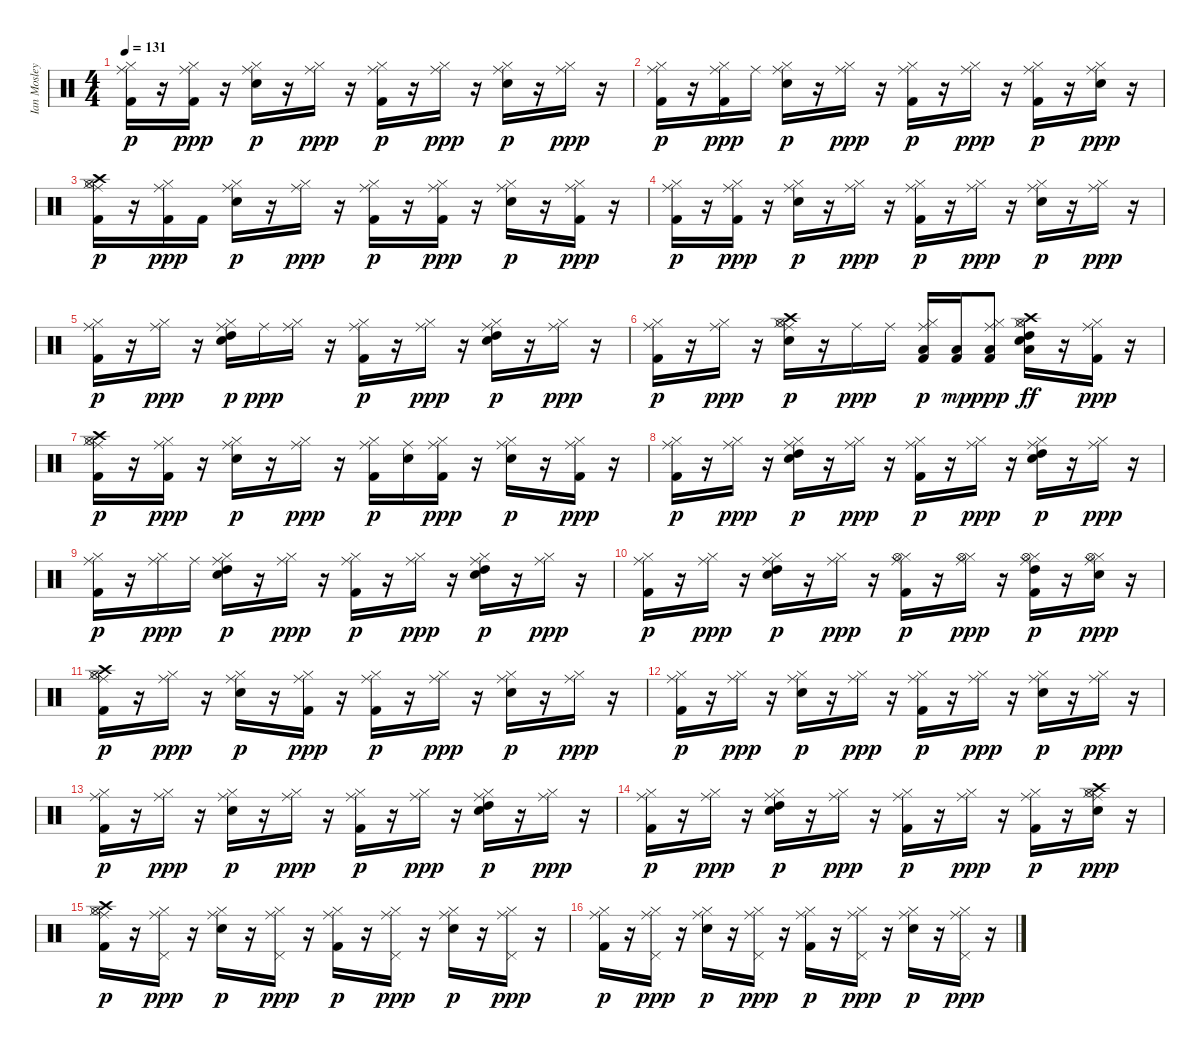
\track ("Ian Mosley" "Ian Mosley") {instrument percussion}
\staff {score}
\articulation defaults
\ts (4 4)
\tempo 131
\clef neutral
\ks c
("Kick (hit) 2" "Hi-Hat (closed)" "Ride (middle)").16{dy p} r.16 ("Hi-Hat (closed)" "Kick (hit) 2" "Ride (middle)").16{dy ppp} r.16 ("Snare (hit) 2" "Hi-Hat (closed)" "Ride (middle)").16{dy p} r.16 ("Hi-Hat (closed)" "Ride (middle)").16{dy ppp} r.16 ("Kick (hit) 2" "Hi-Hat (closed)" "Ride (middle)").16{dy p} r.16 ("Hi-Hat (closed)" "Ride (middle)").16{dy ppp} r.16 ("Hi-Hat (closed)" "Snare (hit) 2" "Ride (middle)").16{dy p} r.16 ("Hi-Hat (closed)" "Ride (middle)").16{dy ppp} r.16 |
("Kick (hit) 2" "Hi-Hat (closed)" "Ride (middle)").16{dy p} r.16 ("Kick (hit) 2" "Hi-Hat (closed)" "Ride (middle)").16{dy ppp} "Ride (middle)".16 ("Snare (hit) 2" "Hi-Hat (closed)" "Ride (middle)").16{dy p} r.16 ("Hi-Hat (closed)" "Ride (middle)").16{dy ppp} r.16 ("Hi-Hat (closed)" "Kick (hit) 2" "Ride (middle)").16{dy p} r.16 ("Hi-Hat (closed)" "Ride (middle)").16{dy ppp} r.16 ("Kick (hit) 2" "Hi-Hat (closed)" "Ride (middle)").16{dy p} r.16 ("Snare (hit) 2" "Hi-Hat (closed)" "Ride (middle)").16{dy ppp} r.16 |
("Kick (hit) 2" "Hi-Hat (closed)" "Crash high (hit)" "Hi-Hat (open)" "Ride (middle)").16{dy p} r.16 ("Hi-Hat (closed)" "Kick (hit) 2" "Ride (middle)").16{dy ppp} "Kick (hit) 2".16 ("Snare (hit) 2" "Hi-Hat (closed)" "Ride (middle)").16{dy p} r.16 ("Hi-Hat (closed)" "Ride (middle)").16{dy ppp} r.16 ("Kick (hit) 2" "Hi-Hat (closed)" "Ride (middle)").16{dy p} r.16 ("Hi-Hat (closed)" "Kick (hit) 2" "Ride (middle)").16{dy ppp} r.16 ("Snare (hit) 2" "Hi-Hat (closed)" "Ride (middle)").16{dy p} r.16 ("Hi-Hat (closed)" "Kick (hit) 2" "Ride (middle)").16{dy ppp} r.16 |
("Kick (hit) 2" "Hi-Hat (closed)" "Ride (middle)").16{dy p} r.16 ("Hi-Hat (closed)" "Kick (hit) 2" "Ride (middle)").16{dy ppp} r.16 ("Snare (hit) 2" "Hi-Hat (closed)" "Ride (middle)").16{dy p} r.16 ("Hi-Hat (closed)" "Ride (middle)").16{dy ppp} r.16 ("Kick (hit) 2" "Hi-Hat (closed)" "Ride (middle)").16{dy p} r.16 ("Hi-Hat (closed)" "Ride (middle)").16{dy ppp} r.16 ("Hi-Hat (closed)" "Snare (hit) 2" "Ride (middle)").16{dy p} r.16 ("Hi-Hat (closed)" "Ride (middle)").16{dy ppp} r.16 |
("Kick (hit) 2" "Hi-Hat (closed)" "Ride (middle)").16{dy p} r.16 ("Hi-Hat (closed)" "Ride (middle)").16{dy ppp} r.16 ("Snare (hit) 2" "Hi-Hat (closed)" "High Tom (hit)" "Ride (middle)").16{dy p} "Ride (middle)".16{dy ppp} ("Hi-Hat (closed)" "Ride (middle)").16 r.16 ("Kick (hit) 2" "Hi-Hat (closed)" "Ride (middle)").16{dy p} r.16 ("Hi-Hat (closed)" "Ride (middle)").16{dy ppp} r.16 ("Hi-Hat (closed)" "Snare (hit) 2" "High Tom (hit)" "Ride (middle)").16{dy p} r.16 ("Hi-Hat (closed)" "Ride (middle)").16{dy ppp} r.16 |
("Kick (hit) 2" "Hi-Hat (closed)" "Ride (middle)").16{dy p} r.16 ("Hi-Hat (closed)" "Ride (middle)").16{dy ppp} r.16 ("Snare (hit) 2" "Hi-Hat (closed)" "Hi-Hat (open)" "Crash high (hit)" "Ride (middle)").16{dy p} r.16 "Ride (middle)".16{dy ppp} "Ride (middle)".16 ("Kick (hit) 2" "Hi-Hat (closed)" "Low Tom (hit)" "Ride (middle)").16{dy p} ("Kick (hit) 2" "Low Tom (hit)").16{dy mp} ("Hi-Hat (closed)" "Low Tom (hit)" "Kick (hit) 2" "Ride (middle)").8{dy ppp} ("Hi-Hat (closed)" "Snare (hit) 2" "High Tom (hit)" "Crash high (hit)" "Hi-Hat (open)" "Low Floor Tom (hit)").16{dy ff} r.16 ("Hi-Hat (closed)" "Kick (hit) 2" "Ride (middle)").16{dy ppp} r.16 |
("Kick (hit) 2" "Hi-Hat (closed)" "Crash high (hit)" "Hi-Hat (open)" "Ride (middle)").16{dy p} r.16 ("Hi-Hat (closed)" "Kick (hit) 2" "Ride (middle)").16{dy ppp} r.16 ("Snare (hit) 2" "Hi-Hat (closed)" "Ride (middle)").16{dy p} r.16 ("Hi-Hat (closed)" "Ride (middle)").16{dy ppp} r.16 ("Hi-Hat (closed)" "Kick (hit) 2" "Ride (middle)").16{dy p} ("Snare (hit) 2" "Ride (middle)").16 ("Hi-Hat (closed)" "Kick (hit) 2" "Ride (middle)").16{dy ppp} r.16 ("Snare (hit) 2" "Hi-Hat (closed)" "Ride (middle)").16{dy p} r.16 ("Hi-Hat (closed)" "Kick (hit) 2" "Ride (middle)").16{dy ppp} r.16 |
("Kick (hit) 2" "Hi-Hat (closed)" "Ride (middle)").16{dy p} r.16 ("Hi-Hat (closed)" "Ride (middle)").16{dy ppp} r.16 ("Snare (hit) 2" "Hi-Hat (closed)" "High Tom (hit)" "Ride (middle)").16{dy p} r.16 ("Hi-Hat (closed)" "Ride (middle)").16{dy ppp} r.16 ("Kick (hit) 2" "Hi-Hat (closed)" "Ride (middle)").16{dy p} r.16 ("Hi-Hat (closed)" "Ride (middle)").16{dy ppp} r.16 ("Hi-Hat (closed)" "Snare (hit) 2" "High Tom (hit)" "Ride (middle)").16{dy p} r.16 ("Hi-Hat (closed)" "Ride (middle)").16{dy ppp} r.16 |
("Kick (hit) 2" "Hi-Hat (closed)" "Ride (middle)").16{dy p} r.16 ("Hi-Hat (closed)" "Ride (middle)").16{dy ppp} "Ride (middle)".16 ("Snare (hit) 2" "Hi-Hat (closed)" "High Tom (hit)" "Ride (middle)").16{dy p} r.16 ("Hi-Hat (closed)" "Ride (middle)").16{dy ppp} r.16 ("Kick (hit) 2" "Hi-Hat (closed)" "Ride (middle)").16{dy p} r.16 ("Hi-Hat (closed)" "Ride (middle)").16{dy ppp} r.16 ("Hi-Hat (closed)" "Snare (hit) 2" "High Tom (hit)" "Ride (middle)").16{dy p} r.16 ("Hi-Hat (closed)" "Ride (middle)").16{dy ppp} r.16 |
("Kick (hit) 2" "Hi-Hat (closed)" "Ride (middle)").16{dy p} r.16 ("Hi-Hat (closed)" "Ride (middle)").16{dy ppp} r.16 ("Snare (hit) 2" "Hi-Hat (closed)" "High Tom (hit)" "Ride (middle)").16{dy p} r.16 ("Hi-Hat (closed)" "Ride (middle)").16{dy ppp} r.16 ("Hi-Hat (closed)" "Kick (hit) 2" "Hi-Hat (open)" "Ride (middle)").16{dy p} r.16 ("Hi-Hat (closed)" "Hi-Hat (open)" "Ride (middle)").16{dy ppp} r.16 ("Kick (hit) 2" "Hi-Hat (closed)" "Hi-Hat (open)" "High Tom (hit)" "Ride (middle)").16{dy p} r.16 ("Snare (hit) 2" "Hi-Hat (closed)" "Hi-Hat (open)" "Ride (middle)").16{dy ppp} r.16 |
("Kick (hit) 2" "Hi-Hat (closed)" "Crash high (hit)" "Hi-Hat (open)" "Ride (middle)").16{dy p} r.16 ("Hi-Hat (closed)" "Ride (middle)").16{dy ppp} r.16 ("Snare (hit) 2" "Hi-Hat (closed)" "Ride (middle)").16{dy p} r.16 ("Hi-Hat (closed)" "Kick (hit) 2" "Ride (middle)").16{dy ppp} r.16 ("Kick (hit) 2" "Hi-Hat (closed)" "Ride (middle)").16{dy p} r.16 ("Hi-Hat (closed)" "Ride (middle)").16{dy ppp} r.16 ("Hi-Hat (closed)" "Snare (hit) 2" "Ride (middle)").16{dy p} r.16 ("Hi-Hat (closed)" "Ride (middle)").16{dy ppp} r.16 |
("Kick (hit) 2" "Hi-Hat (closed)" "Ride (middle)").16{dy p} r.16 ("Hi-Hat (closed)" "Ride (middle)").16{dy ppp} r.16 ("Snare (hit) 2" "Hi-Hat (closed)" "Ride (middle)").16{dy p} r.16 ("Hi-Hat (closed)" "Ride (middle)").16{dy ppp} r.16 ("Kick (hit) 2" "Hi-Hat (closed)" "Ride (middle)").16{dy p} r.16 ("Hi-Hat (closed)" "Ride (middle)").16{dy ppp} r.16 ("Hi-Hat (closed)" "Snare (hit) 2" "Ride (middle)").16{dy p} r.16 ("Hi-Hat (closed)" "Ride (middle)").16{dy ppp} r.16 |
("Kick (hit) 2" "Hi-Hat (closed)" "Ride (middle)").16{dy p} r.16 ("Hi-Hat (closed)" "Ride (middle)").16{dy ppp} r.16 ("Snare (hit) 2" "Hi-Hat (closed)" "Ride (middle)").16{dy p} r.16 ("Hi-Hat (closed)" "Ride (middle)").16{dy ppp} r.16 ("Kick (hit) 2" "Hi-Hat (closed)" "Ride (middle)").16{dy p} r.16 ("Hi-Hat (closed)" "Ride (middle)").16{dy ppp} r.16 ("Hi-Hat (closed)" "Snare (hit) 2" "High Tom (hit)" "Ride (middle)").16{dy p} r.16 ("Hi-Hat (closed)" "Ride (middle)").16{dy ppp} r.16 |
("Kick (hit) 2" "Hi-Hat (closed)" "Ride (middle)").16{dy p} r.16 ("Hi-Hat (closed)" "Ride (middle)").16{dy ppp} r.16 ("Snare (hit) 2" "Hi-Hat (closed)" "High Tom (hit)" "Ride (middle)").16{dy p} r.16 ("Hi-Hat (closed)" "Ride (middle)").16{dy ppp} r.16 ("Hi-Hat (closed)" "Kick (hit) 2" "Ride (middle)").16{dy p} r.16 ("Hi-Hat (closed)" "Ride (middle)").16{dy ppp} r.16 ("Kick (hit) 2" "Hi-Hat (closed)" "Ride (middle)").16{dy p} r.16 ("Snare (hit) 2" "Hi-Hat (closed)" "Crash high (hit)" "Hi-Hat (open)" "Ride (middle)").16{dy ppp} r.16 |
("Kick (hit) 2" "Hi-Hat (closed)" "Crash high (hit)" "Hi-Hat (open)" "Ride (middle)").16{dy p} r.16 ("Hi-Hat (closed)" "Pedal Hi-Hat (hit)" "Ride (middle)").16{dy ppp} r.16 ("Snare (hit) 2" "Hi-Hat (closed)" "Ride (middle)").16{dy p} r.16 ("Hi-Hat (closed)" "Pedal Hi-Hat (hit)" "Ride (middle)").16{dy ppp} r.16 ("Kick (hit) 2" "Hi-Hat (closed)" "Ride (middle)").16{dy p} r.16 ("Hi-Hat (closed)" "Pedal Hi-Hat (hit)" "Ride (middle)").16{dy ppp} r.16 ("Hi-Hat (closed)" "Snare (hit) 2" "Ride (middle)").16{dy p} r.16 ("Hi-Hat (closed)" "Pedal Hi-Hat (hit)" "Ride (middle)").16{dy ppp} r.16 |
("Kick (hit) 2" "Hi-Hat (closed)" "Ride (middle)").16{dy p} r.16 ("Hi-Hat (closed)" "Pedal Hi-Hat (hit)" "Ride (middle)").16{dy ppp} r.16 ("Snare (hit) 2" "Hi-Hat (closed)" "Ride (middle)").16{dy p} r.16 ("Hi-Hat (closed)" "Pedal Hi-Hat (hit)" "Ride (middle)").16{dy ppp} r.16 ("Kick (hit) 2" "Hi-Hat (closed)" "Ride (middle)").16{dy p} r.16 ("Hi-Hat (closed)" "Pedal Hi-Hat (hit)" "Ride (middle)").16{dy ppp} r.16 ("Hi-Hat (closed)" "Snare (hit) 2" "Ride (middle)").16{dy p} r.16 ("Hi-Hat (closed)" "Pedal Hi-Hat (hit)" "Ride (middle)").16{dy ppp} r.16
